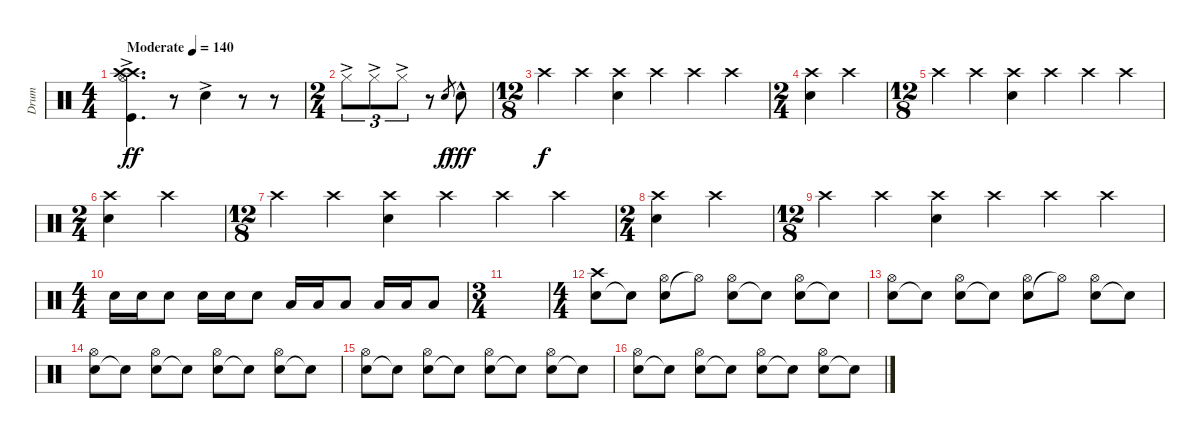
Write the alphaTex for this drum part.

\track ("Drum" "Drum") {instrument percussion}
\staff {score}
\articulation defaults
\ts (4 4)
\tempo (140 "Moderate")
\clef neutral
\ks c
("Crash high (hit)"{ac} "Crash high (hit)"{ac} "Hi-Hat (open)"{ac} "Kick (hit)"{ac}).4{d dy ff} r.8 "Snare (hit) 2"{ac}.4 r.8 r.8 |
\ts (2 4)
"Hi-Hat (closed)"{ac}.8{tu (3 2)} "Hi-Hat (closed)"{ac}.8{tu (3 2)} "Hi-Hat (closed)"{ac}.8{tu (3 2)} r.8 "Snare (hit) 2".8{gr dy f} "Snare (hit) 2"{hac}.8{dy fff} |
\ts (12 8)
"Crash high (hit)".4{dy f} "Crash high (hit)".4 ("Crash high (hit)" "Snare (hit) 2").4 "Crash high (hit)".4 "Crash high (hit)".4 "Crash high (hit)".4 |
\ts (2 4)
("Crash high (hit)" "Snare (hit) 2").4 "Crash high (hit)".4 |
\ts (12 8)
"Crash high (hit)".4 "Crash high (hit)".4 ("Crash high (hit)" "Snare (hit) 2").4 "Crash high (hit)".4 "Crash high (hit)".4 "Crash high (hit)".4 |
\ts (2 4)
("Crash high (hit)" "Snare (hit) 2").4 "Crash high (hit)".4 |
\ts (12 8)
"Crash high (hit)".4 "Crash high (hit)".4 ("Crash high (hit)" "Snare (hit) 2").4 "Crash high (hit)".4 "Crash high (hit)".4 "Crash high (hit)".4 |
\ts (2 4)
("Crash high (hit)" "Snare (hit) 2").4 "Crash high (hit)".4 |
\ts (12 8)
"Crash high (hit)".4 "Crash high (hit)".4 ("Crash high (hit)" "Snare (hit) 2").4 "Crash high (hit)".4 "Crash high (hit)".4 "Crash high (hit)".4 |
\ts (4 4)
"Snare (hit) 2".16 "Snare (hit) 2".16 "Snare (hit) 2".8 "Snare (hit) 2".16 "Snare (hit) 2".16 "Snare (hit) 2".8 "Low Tom (hit)".16 "Low Tom (hit)".16 "Low Tom (hit)".8 "Low Tom (hit)".16 "Low Tom (hit)".16 "Low Tom (hit)".8 |
\ts (3 4)
|
\ts (4 4)
("Snare (hit) 2" "Crash high (hit)").8 "Snare (hit)"{t}.8 ("Snare (hit) 2" "Hi-Hat (open)").8 "Hi-Hat (open)"{t}.8 ("Snare (hit) 2" "Hi-Hat (open)").8 "Snare (hit)"{t}.8 ("Snare (hit) 2" "Hi-Hat (open)").8 "Snare (hit)"{t}.8 |
("Snare (hit) 2" "Hi-Hat (open)").8 "Snare (hit)"{t}.8 ("Snare (hit) 2" "Hi-Hat (open)").8 "Snare (hit)"{t}.8 ("Snare (hit) 2" "Hi-Hat (open)").8 "Hi-Hat (open)"{t}.8 ("Snare (hit) 2" "Hi-Hat (open)").8 "Snare (hit)"{t}.8 |
("Snare (hit) 2" "Hi-Hat (open)").8 "Snare (hit)"{t}.8 ("Snare (hit) 2" "Hi-Hat (open)").8 "Snare (hit)"{t}.8 ("Snare (hit) 2" "Hi-Hat (open)").8 "Snare (hit)"{t}.8 ("Snare (hit) 2" "Hi-Hat (open)").8 "Snare (hit)"{t}.8 |
("Snare (hit) 2" "Hi-Hat (open)").8 "Snare (hit)"{t}.8 ("Snare (hit) 2" "Hi-Hat (open)").8 "Snare (hit)"{t}.8 ("Snare (hit) 2" "Hi-Hat (open)").8 "Snare (hit)"{t}.8 ("Snare (hit) 2" "Hi-Hat (open)").8 "Snare (hit)"{t}.8 |
("Snare (hit) 2" "Hi-Hat (open)").8 "Snare (hit)"{t}.8 ("Snare (hit) 2" "Hi-Hat (open)").8 "Snare (hit)"{t}.8 ("Snare (hit) 2" "Hi-Hat (open)").8 "Snare (hit)"{t}.8 ("Snare (hit) 2" "Hi-Hat (open)").8 "Snare (hit)"{t}.8
